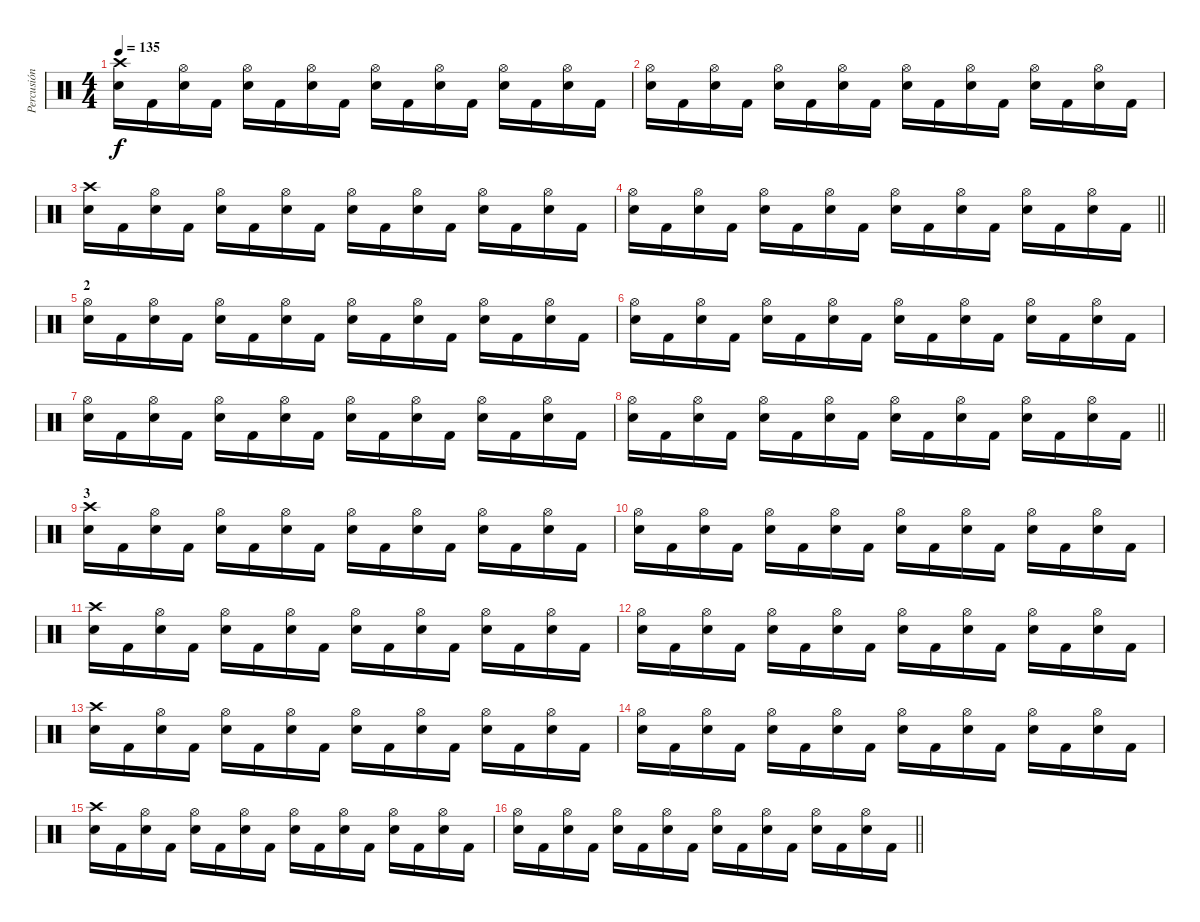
\track ("Percusión" "Percusión") {instrument percussion}
\staff {score}
\articulation defaults
\ts (4 4)
\tempo 135
\clef neutral
\ks c
("Crash high (hit)" "Snare (hit) 2").16{dy f} "Kick (hit) 2".16 ("Hi-Hat (open)" "Snare (hit) 2").16 "Kick (hit) 2".16 ("Hi-Hat (open)" "Snare (hit) 2").16 "Kick (hit) 2".16 ("Hi-Hat (open)" "Snare (hit) 2").16 "Kick (hit) 2".16 ("Hi-Hat (open)" "Snare (hit) 2").16 "Kick (hit) 2".16 ("Hi-Hat (open)" "Snare (hit) 2").16 "Kick (hit) 2".16 ("Hi-Hat (open)" "Snare (hit) 2").16 "Kick (hit) 2".16 ("Hi-Hat (open)" "Snare (hit) 2").16 "Kick (hit) 2".16 |
("Hi-Hat (open)" "Snare (hit) 2").16 "Kick (hit) 2".16 ("Hi-Hat (open)" "Snare (hit) 2").16 "Kick (hit) 2".16 ("Hi-Hat (open)" "Snare (hit) 2").16 "Kick (hit) 2".16 ("Hi-Hat (open)" "Snare (hit) 2").16 "Kick (hit) 2".16 ("Hi-Hat (open)" "Snare (hit) 2").16 "Kick (hit) 2".16 ("Hi-Hat (open)" "Snare (hit) 2").16 "Kick (hit) 2".16 ("Hi-Hat (open)" "Snare (hit) 2").16 "Kick (hit) 2".16 ("Hi-Hat (open)" "Snare (hit) 2").16 "Kick (hit) 2".16 |
("Crash high (hit)" "Snare (hit) 2").16 "Kick (hit) 2".16 ("Hi-Hat (open)" "Snare (hit) 2").16 "Kick (hit) 2".16 ("Hi-Hat (open)" "Snare (hit) 2").16 "Kick (hit) 2".16 ("Hi-Hat (open)" "Snare (hit) 2").16 "Kick (hit) 2".16 ("Hi-Hat (open)" "Snare (hit) 2").16 "Kick (hit) 2".16 ("Hi-Hat (open)" "Snare (hit) 2").16 "Kick (hit) 2".16 ("Hi-Hat (open)" "Snare (hit) 2").16 "Kick (hit) 2".16 ("Hi-Hat (open)" "Snare (hit) 2").16 "Kick (hit) 2".16 |
\barLineRight lightlight
("Hi-Hat (open)" "Snare (hit) 2").16 "Kick (hit) 2".16 ("Hi-Hat (open)" "Snare (hit) 2").16 "Kick (hit) 2".16 ("Hi-Hat (open)" "Snare (hit) 2").16 "Kick (hit) 2".16 ("Hi-Hat (open)" "Snare (hit) 2").16 "Kick (hit) 2".16 ("Hi-Hat (open)" "Snare (hit) 2").16 "Kick (hit) 2".16 ("Hi-Hat (open)" "Snare (hit) 2").16 "Kick (hit) 2".16 ("Hi-Hat (open)" "Snare (hit) 2").16 "Kick (hit) 2".16 ("Hi-Hat (open)" "Snare (hit) 2").16 "Kick (hit) 2".16 |
\section ("" "2")
("Hi-Hat (open)" "Snare (hit) 2").16 "Kick (hit) 2".16 ("Hi-Hat (open)" "Snare (hit) 2").16 "Kick (hit) 2".16 ("Hi-Hat (open)" "Snare (hit) 2").16 "Kick (hit) 2".16 ("Hi-Hat (open)" "Snare (hit) 2").16 "Kick (hit) 2".16 ("Hi-Hat (open)" "Snare (hit) 2").16 "Kick (hit) 2".16 ("Hi-Hat (open)" "Snare (hit) 2").16 "Kick (hit) 2".16 ("Hi-Hat (open)" "Snare (hit) 2").16 "Kick (hit) 2".16 ("Hi-Hat (open)" "Snare (hit) 2").16 "Kick (hit) 2".16 |
("Hi-Hat (open)" "Snare (hit) 2").16 "Kick (hit) 2".16 ("Hi-Hat (open)" "Snare (hit) 2").16 "Kick (hit) 2".16 ("Hi-Hat (open)" "Snare (hit) 2").16 "Kick (hit) 2".16 ("Hi-Hat (open)" "Snare (hit) 2").16 "Kick (hit) 2".16 ("Hi-Hat (open)" "Snare (hit) 2").16 "Kick (hit) 2".16 ("Hi-Hat (open)" "Snare (hit) 2").16 "Kick (hit) 2".16 ("Hi-Hat (open)" "Snare (hit) 2").16 "Kick (hit) 2".16 ("Hi-Hat (open)" "Snare (hit) 2").16 "Kick (hit) 2".16 |
("Hi-Hat (open)" "Snare (hit) 2").16 "Kick (hit) 2".16 ("Hi-Hat (open)" "Snare (hit) 2").16 "Kick (hit) 2".16 ("Hi-Hat (open)" "Snare (hit) 2").16 "Kick (hit) 2".16 ("Hi-Hat (open)" "Snare (hit) 2").16 "Kick (hit) 2".16 ("Hi-Hat (open)" "Snare (hit) 2").16 "Kick (hit) 2".16 ("Hi-Hat (open)" "Snare (hit) 2").16 "Kick (hit) 2".16 ("Hi-Hat (open)" "Snare (hit) 2").16 "Kick (hit) 2".16 ("Hi-Hat (open)" "Snare (hit) 2").16 "Kick (hit) 2".16 |
\barLineRight lightlight
("Hi-Hat (open)" "Snare (hit) 2").16 "Kick (hit) 2".16 ("Hi-Hat (open)" "Snare (hit) 2").16 "Kick (hit) 2".16 ("Hi-Hat (open)" "Snare (hit) 2").16 "Kick (hit) 2".16 ("Hi-Hat (open)" "Snare (hit) 2").16 "Kick (hit) 2".16 ("Hi-Hat (open)" "Snare (hit) 2").16 "Kick (hit) 2".16 ("Hi-Hat (open)" "Snare (hit) 2").16 "Kick (hit) 2".16 ("Hi-Hat (open)" "Snare (hit) 2").16 "Kick (hit) 2".16 ("Hi-Hat (open)" "Snare (hit) 2").16 "Kick (hit) 2".16 |
\section ("" "3")
("Crash high (hit)" "Snare (hit) 2").16 "Kick (hit) 2".16 ("Hi-Hat (open)" "Snare (hit) 2").16 "Kick (hit) 2".16 ("Hi-Hat (open)" "Snare (hit) 2").16 "Kick (hit) 2".16 ("Hi-Hat (open)" "Snare (hit) 2").16 "Kick (hit) 2".16 ("Hi-Hat (open)" "Snare (hit) 2").16 "Kick (hit) 2".16 ("Hi-Hat (open)" "Snare (hit) 2").16 "Kick (hit) 2".16 ("Hi-Hat (open)" "Snare (hit) 2").16 "Kick (hit) 2".16 ("Hi-Hat (open)" "Snare (hit) 2").16 "Kick (hit) 2".16 |
("Hi-Hat (open)" "Snare (hit) 2").16 "Kick (hit) 2".16 ("Hi-Hat (open)" "Snare (hit) 2").16 "Kick (hit) 2".16 ("Hi-Hat (open)" "Snare (hit) 2").16 "Kick (hit) 2".16 ("Hi-Hat (open)" "Snare (hit) 2").16 "Kick (hit) 2".16 ("Hi-Hat (open)" "Snare (hit) 2").16 "Kick (hit) 2".16 ("Hi-Hat (open)" "Snare (hit) 2").16 "Kick (hit) 2".16 ("Hi-Hat (open)" "Snare (hit) 2").16 "Kick (hit) 2".16 ("Hi-Hat (open)" "Snare (hit) 2").16 "Kick (hit) 2".16 |
("Crash high (hit)" "Snare (hit) 2").16 "Kick (hit) 2".16 ("Hi-Hat (open)" "Snare (hit) 2").16 "Kick (hit) 2".16 ("Hi-Hat (open)" "Snare (hit) 2").16 "Kick (hit) 2".16 ("Hi-Hat (open)" "Snare (hit) 2").16 "Kick (hit) 2".16 ("Hi-Hat (open)" "Snare (hit) 2").16 "Kick (hit) 2".16 ("Hi-Hat (open)" "Snare (hit) 2").16 "Kick (hit) 2".16 ("Hi-Hat (open)" "Snare (hit) 2").16 "Kick (hit) 2".16 ("Hi-Hat (open)" "Snare (hit) 2").16 "Kick (hit) 2".16 |
("Hi-Hat (open)" "Snare (hit) 2").16 "Kick (hit) 2".16 ("Hi-Hat (open)" "Snare (hit) 2").16 "Kick (hit) 2".16 ("Hi-Hat (open)" "Snare (hit) 2").16 "Kick (hit) 2".16 ("Hi-Hat (open)" "Snare (hit) 2").16 "Kick (hit) 2".16 ("Hi-Hat (open)" "Snare (hit) 2").16 "Kick (hit) 2".16 ("Hi-Hat (open)" "Snare (hit) 2").16 "Kick (hit) 2".16 ("Hi-Hat (open)" "Snare (hit) 2").16 "Kick (hit) 2".16 ("Hi-Hat (open)" "Snare (hit) 2").16 "Kick (hit) 2".16 |
("Crash high (hit)" "Snare (hit) 2").16 "Kick (hit) 2".16 ("Hi-Hat (open)" "Snare (hit) 2").16 "Kick (hit) 2".16 ("Hi-Hat (open)" "Snare (hit) 2").16 "Kick (hit) 2".16 ("Hi-Hat (open)" "Snare (hit) 2").16 "Kick (hit) 2".16 ("Hi-Hat (open)" "Snare (hit) 2").16 "Kick (hit) 2".16 ("Hi-Hat (open)" "Snare (hit) 2").16 "Kick (hit) 2".16 ("Hi-Hat (open)" "Snare (hit) 2").16 "Kick (hit) 2".16 ("Hi-Hat (open)" "Snare (hit) 2").16 "Kick (hit) 2".16 |
("Hi-Hat (open)" "Snare (hit) 2").16 "Kick (hit) 2".16 ("Hi-Hat (open)" "Snare (hit) 2").16 "Kick (hit) 2".16 ("Hi-Hat (open)" "Snare (hit) 2").16 "Kick (hit) 2".16 ("Hi-Hat (open)" "Snare (hit) 2").16 "Kick (hit) 2".16 ("Hi-Hat (open)" "Snare (hit) 2").16 "Kick (hit) 2".16 ("Hi-Hat (open)" "Snare (hit) 2").16 "Kick (hit) 2".16 ("Hi-Hat (open)" "Snare (hit) 2").16 "Kick (hit) 2".16 ("Hi-Hat (open)" "Snare (hit) 2").16 "Kick (hit) 2".16 |
("Crash high (hit)" "Snare (hit) 2").16 "Kick (hit) 2".16 ("Hi-Hat (open)" "Snare (hit) 2").16 "Kick (hit) 2".16 ("Hi-Hat (open)" "Snare (hit) 2").16 "Kick (hit) 2".16 ("Hi-Hat (open)" "Snare (hit) 2").16 "Kick (hit) 2".16 ("Hi-Hat (open)" "Snare (hit) 2").16 "Kick (hit) 2".16 ("Hi-Hat (open)" "Snare (hit) 2").16 "Kick (hit) 2".16 ("Hi-Hat (open)" "Snare (hit) 2").16 "Kick (hit) 2".16 ("Hi-Hat (open)" "Snare (hit) 2").16 "Kick (hit) 2".16 |
\barLineRight lightlight
("Hi-Hat (open)" "Snare (hit) 2").16 "Kick (hit) 2".16 ("Hi-Hat (open)" "Snare (hit) 2").16 "Kick (hit) 2".16 ("Hi-Hat (open)" "Snare (hit) 2").16 "Kick (hit) 2".16 ("Hi-Hat (open)" "Snare (hit) 2").16 "Kick (hit) 2".16 ("Hi-Hat (open)" "Snare (hit) 2").16 "Kick (hit) 2".16 ("Hi-Hat (open)" "Snare (hit) 2").16 "Kick (hit) 2".16 ("Hi-Hat (open)" "Snare (hit) 2").16 "Kick (hit) 2".16 ("Hi-Hat (open)" "Snare (hit) 2").16 "Kick (hit) 2".16
